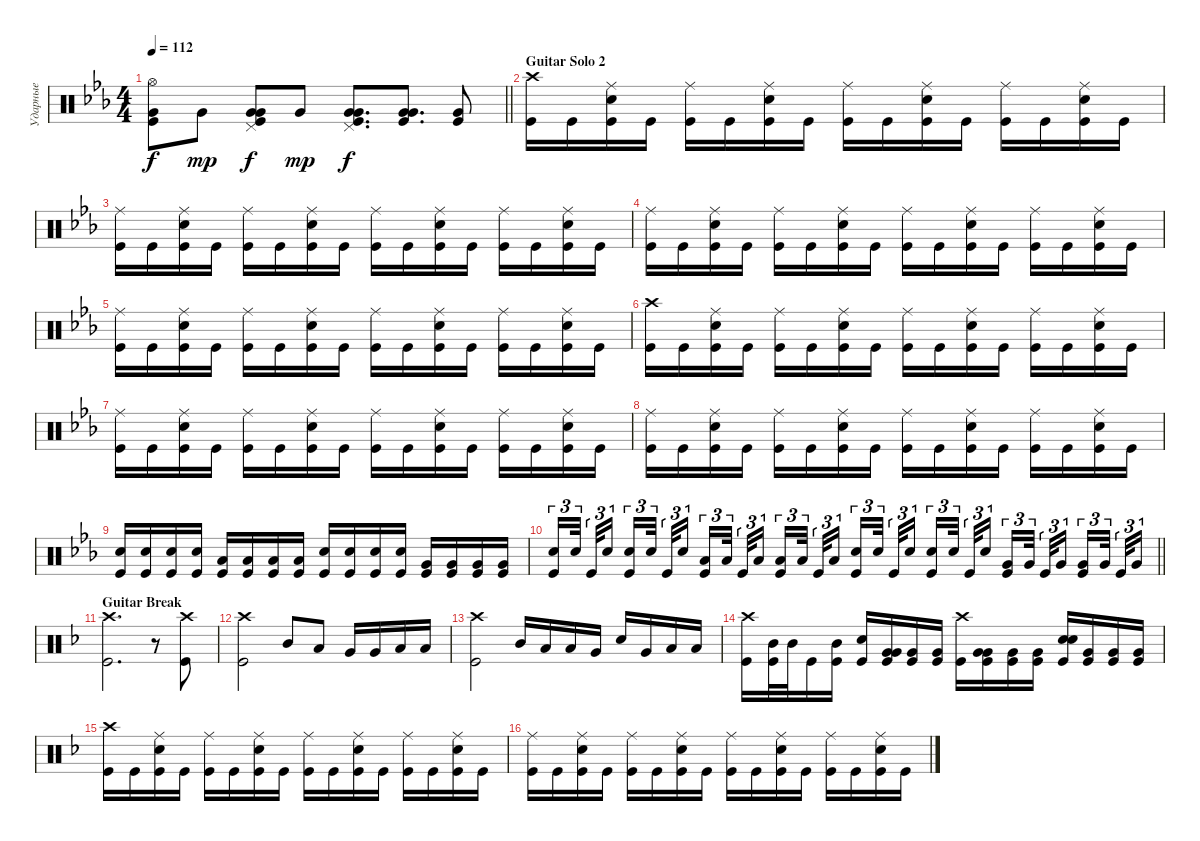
\track ("Ударные" "Ударные") {instrument percussion}
\staff {score}
\articulation defaults
\ts (4 4)
\tempo 112
\clef neutral
\barLineRight lightlight
\ks cminor
("Kick (hit)" "Very Low Tom (hit)" "Hi-Hat (open)").8{dy f} "Very Low Tom (hit)".8{dy mp} ("Very Low Tom (hit)" "Very Low Tom (hit)" "Kick (hit)" "Pedal Hi-Hat (hit)").8{bd 120 dy f} "Very Low Tom (hit)".8{dy mp} ("Kick (hit)" "Very Low Tom (hit)" "Very Low Tom (hit)" "Pedal Hi-Hat (hit)").8{d bd 120 dy f} ("Kick (hit)" "Very Low Tom (hit)" "Very Low Tom (hit)").8{d bd 120} ("Kick (hit)" "Very Low Tom (hit)").8 |
\section ("" "Guitar Solo 2")
("Kick (hit)" "Crash high (hit)").16 "Kick (hit)".16 ("Kick (hit)" "Snare (hit) 2" "Ride (middle)").16 "Kick (hit)".16 ("Kick (hit)" "Ride (middle)").16 "Kick (hit)".16 ("Kick (hit)" "Snare (hit) 2" "Ride (middle)").16 "Kick (hit)".16 ("Kick (hit)" "Ride (middle)").16 "Kick (hit)".16 ("Kick (hit)" "Snare (hit) 2" "Ride (middle)").16 "Kick (hit)".16 ("Kick (hit)" "Ride (middle)").16 "Kick (hit)".16 ("Kick (hit)" "Snare (hit) 2" "Ride (middle)").16 "Kick (hit)".16 |
("Kick (hit)" "Ride (middle)").16 "Kick (hit)".16 ("Kick (hit)" "Snare (hit) 2" "Ride (middle)").16 "Kick (hit)".16 ("Kick (hit)" "Ride (middle)").16 "Kick (hit)".16 ("Kick (hit)" "Snare (hit) 2" "Ride (middle)").16 "Kick (hit)".16 ("Kick (hit)" "Ride (middle)").16 "Kick (hit)".16 ("Kick (hit)" "Snare (hit) 2" "Ride (middle)").16 "Kick (hit)".16 ("Kick (hit)" "Ride (middle)").16 "Kick (hit)".16 ("Kick (hit)" "Snare (hit) 2" "Ride (middle)").16 "Kick (hit)".16 |
("Kick (hit)" "Ride (middle)").16 "Kick (hit)".16 ("Kick (hit)" "Snare (hit) 2" "Ride (middle)").16 "Kick (hit)".16 ("Kick (hit)" "Ride (middle)").16 "Kick (hit)".16 ("Kick (hit)" "Snare (hit) 2" "Ride (middle)").16 "Kick (hit)".16 ("Kick (hit)" "Ride (middle)").16 "Kick (hit)".16 ("Kick (hit)" "Snare (hit) 2" "Ride (middle)").16 "Kick (hit)".16 ("Kick (hit)" "Ride (middle)").16 "Kick (hit)".16 ("Kick (hit)" "Snare (hit) 2" "Ride (middle)").16 "Kick (hit)".16 |
("Kick (hit)" "Ride (middle)").16 "Kick (hit)".16 ("Kick (hit)" "Snare (hit) 2" "Ride (middle)").16 "Kick (hit)".16 ("Kick (hit)" "Ride (middle)").16 "Kick (hit)".16 ("Kick (hit)" "Snare (hit) 2" "Ride (middle)").16 "Kick (hit)".16 ("Kick (hit)" "Ride (middle)").16 "Kick (hit)".16 ("Kick (hit)" "Snare (hit) 2" "Ride (middle)").16 "Kick (hit)".16 ("Kick (hit)" "Ride (middle)").16 "Kick (hit)".16 ("Kick (hit)" "Snare (hit) 2" "Ride (middle)").16 "Kick (hit)".16 |
("Kick (hit)" "Crash high (hit)").16 "Kick (hit)".16 ("Kick (hit)" "Snare (hit) 2" "Ride (middle)").16 "Kick (hit)".16 ("Kick (hit)" "Ride (middle)").16 "Kick (hit)".16 ("Kick (hit)" "Snare (hit) 2" "Ride (middle)").16 "Kick (hit)".16 ("Kick (hit)" "Ride (middle)").16 "Kick (hit)".16 ("Kick (hit)" "Snare (hit) 2" "Ride (middle)").16 "Kick (hit)".16 ("Kick (hit)" "Ride (middle)").16 "Kick (hit)".16 ("Kick (hit)" "Snare (hit) 2" "Ride (middle)").16 "Kick (hit)".16 |
("Kick (hit)" "Ride (middle)").16 "Kick (hit)".16 ("Kick (hit)" "Snare (hit) 2" "Ride (middle)").16 "Kick (hit)".16 ("Kick (hit)" "Ride (middle)").16 "Kick (hit)".16 ("Kick (hit)" "Snare (hit) 2" "Ride (middle)").16 "Kick (hit)".16 ("Kick (hit)" "Ride (middle)").16 "Kick (hit)".16 ("Kick (hit)" "Snare (hit) 2" "Ride (middle)").16 "Kick (hit)".16 ("Kick (hit)" "Ride (middle)").16 "Kick (hit)".16 ("Kick (hit)" "Snare (hit) 2" "Ride (middle)").16 "Kick (hit)".16 |
("Kick (hit)" "Ride (middle)").16 "Kick (hit)".16 ("Kick (hit)" "Snare (hit) 2" "Ride (middle)").16 "Kick (hit)".16 ("Kick (hit)" "Ride (middle)").16 "Kick (hit)".16 ("Kick (hit)" "Snare (hit) 2" "Ride (middle)").16 "Kick (hit)".16 ("Kick (hit)" "Ride (middle)").16 "Kick (hit)".16 ("Kick (hit)" "Snare (hit) 2" "Ride (middle)").16 "Kick (hit)".16 ("Kick (hit)" "Ride (middle)").16 "Kick (hit)".16 ("Kick (hit)" "Snare (hit) 2" "Ride (middle)").16 "Kick (hit)".16 |
("Kick (hit)" "Snare (hit) 2").16 ("Kick (hit)" "Snare (hit) 2").16 ("Kick (hit)" "Snare (hit) 2").16 ("Kick (hit)" "Snare (hit) 2").16 ("Kick (hit)" "Low Tom (hit)").16 ("Kick (hit)" "Low Tom (hit)").16 ("Kick (hit)" "Low Tom (hit)").16 ("Kick (hit)" "Low Tom (hit)").16 ("Kick (hit)" "Snare (hit) 2").16 ("Kick (hit)" "Snare (hit) 2").16 ("Kick (hit)" "Snare (hit) 2").16 ("Kick (hit)" "Snare (hit) 2").16 ("Kick (hit)" "Very Low Tom (hit)").16 ("Kick (hit)" "Very Low Tom (hit)").16 ("Kick (hit)" "Very Low Tom (hit)").16 ("Kick (hit)" "Very Low Tom (hit)").16 |
\barLineRight lightlight
("Snare (hit) 2" "Kick (hit)").16{tu (3 2)} "Snare (hit) 2".32{tu (3 2) beam splitsecondary} "Kick (hit)".32{tu (3 2)} "Snare (hit) 2".16{tu (3 2) beam splitsecondary} ("Snare (hit) 2" "Kick (hit)").16{tu (3 2)} "Snare (hit) 2".32{tu (3 2) beam splitsecondary} "Kick (hit)".32{tu (3 2)} "Snare (hit) 2".16{tu (3 2)} ("Low Tom (hit)" "Kick (hit)").16{tu (3 2)} "Low Tom (hit)".32{tu (3 2) beam splitsecondary} "Kick (hit)".32{tu (3 2)} "Low Tom (hit)".16{tu (3 2) beam splitsecondary} ("Low Tom (hit)" "Kick (hit)").16{tu (3 2)} "Low Tom (hit)".32{tu (3 2) beam splitsecondary} "Kick (hit)".32{tu (3 2)} "Low Tom (hit)".16{tu (3 2)} ("Snare (hit) 2" "Kick (hit)").16{tu (3 2)} "Snare (hit) 2".32{tu (3 2) beam splitsecondary} "Kick (hit)".32{tu (3 2)} "Snare (hit) 2".16{tu (3 2) beam splitsecondary} ("Snare (hit) 2" "Kick (hit)").16{tu (3 2)} "Snare (hit) 2".32{tu (3 2) beam splitsecondary} "Kick (hit)".32{tu (3 2)} "Snare (hit) 2".16{tu (3 2)} ("Very Low Tom (hit)" "Kick (hit)").16{tu (3 2)} "Very Low Tom (hit)".32{tu (3 2) beam splitsecondary} "Kick (hit)".32{tu (3 2)} "Very Low Tom (hit)".16{tu (3 2) beam splitsecondary} ("Very Low Tom (hit)" "Kick (hit)").16{tu (3 2)} "Very Low Tom (hit)".32{tu (3 2) beam splitsecondary} "Kick (hit)".32{tu (3 2)} "Very Low Tom (hit)".16{tu (3 2)} |
\section ("" "Guitar Break")
\ks dminor
("Kick (hit)" "Crash high (hit)").2{d} r.8 ("Kick (hit)" "Crash high (hit)").8 |
("Kick (hit)" "Crash high (hit)").2 "Mid Tom (hit)".8 "Low Tom (hit)".8 "Very Low Tom (hit)".16 "Very Low Tom (hit)".16 "Low Floor Tom (hit)".16 "Low Floor Tom (hit)".16 |
("Kick (hit)" "Crash high (hit)").2 "Mid Tom (hit)".16 "Low Tom (hit)".16 "Low Tom (hit)".16 "Very Low Tom (hit)".16 "Snare (hit) 2".16 "Very Low Tom (hit)".16 "Low Floor Tom (hit)".16 "Low Floor Tom (hit)".16 |
("Kick (hit)" "Crash high (hit)").16 ("Mid Tom (hit)" "Kick (hit)").32 "Mid Tom (hit)".32 "Kick (hit)".16 ("Mid Tom (hit)" "Kick (hit)").16 ("Kick (hit)" "Snare (hit) 2").16 ("Very Low Tom (hit)" "Very Low Tom (hit)" "Kick (hit)").16 ("Very Low Tom (hit)" "Kick (hit)").16 ("Very Low Tom (hit)" "Kick (hit)").16 ("Kick (hit)" "Crash high (hit)").16 ("Very Low Tom (hit)" "Very Low Tom (hit)" "Kick (hit)").16 ("Very Low Tom (hit)" "Kick (hit)").16 ("Very Low Tom (hit)" "Kick (hit)").16 ("Snare (hit) 2" "Snare (hit) 2" "Kick (hit)").16 ("Very Low Tom (hit)" "Kick (hit)").16 ("Very Low Tom (hit)" "Kick (hit)").16 ("Very Low Tom (hit)" "Kick (hit)").16 |
("Kick (hit)" "Crash high (hit)").16 "Kick (hit)".16 ("Kick (hit)" "Snare (hit) 2" "Ride (middle)").16 "Kick (hit)".16 ("Kick (hit)" "Ride (middle)").16 "Kick (hit)".16 ("Kick (hit)" "Snare (hit) 2" "Ride (middle)").16 "Kick (hit)".16 ("Kick (hit)" "Ride (middle)").16 "Kick (hit)".16 ("Kick (hit)" "Snare (hit) 2" "Ride (middle)").16 "Kick (hit)".16 ("Kick (hit)" "Ride (middle)").16 "Kick (hit)".16 ("Kick (hit)" "Snare (hit) 2" "Ride (middle)").16 "Kick (hit)".16 |
("Kick (hit)" "Ride (middle)").16 "Kick (hit)".16 ("Kick (hit)" "Snare (hit) 2" "Ride (middle)").16 "Kick (hit)".16 ("Kick (hit)" "Ride (middle)").16 "Kick (hit)".16 ("Kick (hit)" "Snare (hit) 2" "Ride (middle)").16 "Kick (hit)".16 ("Kick (hit)" "Ride (middle)").16 "Kick (hit)".16 ("Kick (hit)" "Snare (hit) 2" "Ride (middle)").16 "Kick (hit)".16 ("Kick (hit)" "Ride (middle)").16 "Kick (hit)".16 ("Kick (hit)" "Snare (hit) 2" "Ride (middle)").16 "Kick (hit)".16
